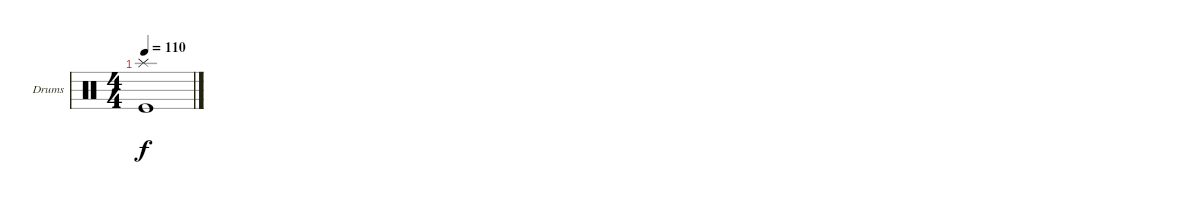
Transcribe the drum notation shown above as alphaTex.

\bracketExtendMode groupsimilarinstruments
\firstSystemTrackNameOrientation horizontal
\otherSystemsTrackNameOrientation horizontal
\track ("Drumkit" "Drums") {instrument percussion}
\staff {score}
\articulation defaults
\ts (4 4)
\tempo 110
\clef neutral
\ks c
("Splash (hit)" "Kick (hit)").1{dy f}
